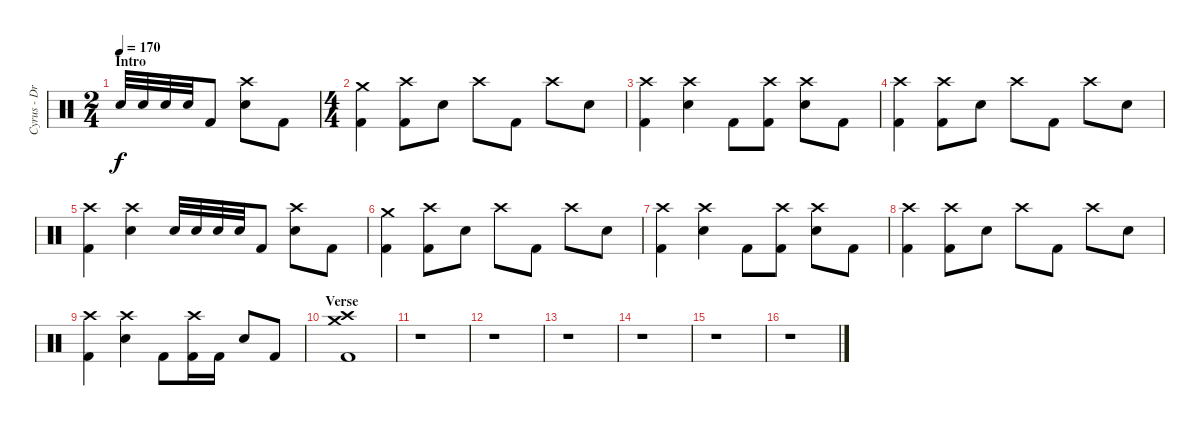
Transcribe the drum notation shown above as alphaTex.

\track ("Cyrus - Drums" "Cyrus - Dr") {instrument percussion}
\staff {score}
\articulation defaults
\ts (2 4)
\section ("" "Intro")
\tempo 170
\clef neutral
\ks c "Electric Snare (hit)".32{dy f} "Electric Snare (hit)".32 "Electric Snare (hit)".32 "Electric Snare (hit)".32 "Kick (hit) 2".8
("Crash high (hit)" "Electric Snare (hit)").8 "Kick (hit) 2".8 |
\ts (4 4)
("Crash medium (hit)" "Kick (hit) 2").4 ("Crash high (hit)" "Kick (hit) 2").8 "Electric Snare (hit)".8 "Crash high (hit)".8 "Kick (hit) 2".8 "Crash high (hit)".8 "Electric Snare (hit)".8 |
("Crash high (hit)" "Kick (hit) 2").4 ("Crash high (hit)" "Electric Snare (hit)").4 "Kick (hit) 2".8 ("Crash high (hit)" "Kick (hit) 2").8 ("Crash high (hit)" "Electric Snare (hit)").8 "Kick (hit) 2".8 |
("Crash high (hit)" "Kick (hit) 2").4 ("Crash high (hit)" "Kick (hit) 2").8 "Electric Snare (hit)".8 "Crash high (hit)".8 "Kick (hit) 2".8 "Crash high (hit)".8 "Electric Snare (hit)".8 |
("Crash high (hit)" "Kick (hit) 2").4 ("Crash high (hit)" "Electric Snare (hit)").4 "Electric Snare (hit)".32 "Electric Snare (hit)".32 "Electric Snare (hit)".32 "Electric Snare (hit)".32 "Kick (hit) 2".8 ("Crash high (hit)" "Electric Snare (hit)").8 "Kick (hit) 2".8 |
("Crash medium (hit)" "Kick (hit) 2").4 ("Crash high (hit)" "Kick (hit) 2").8 "Electric Snare (hit)".8 "Crash high (hit)".8 "Kick (hit) 2".8 "Crash high (hit)".8 "Electric Snare (hit)".8 |
("Crash high (hit)" "Kick (hit) 2").4 ("Crash high (hit)" "Electric Snare (hit)").4 "Kick (hit) 2".8 ("Crash high (hit)" "Kick (hit) 2").8 ("Crash high (hit)" "Electric Snare (hit)").8 "Kick (hit) 2".8 |
("Crash high (hit)" "Kick (hit) 2").4 ("Crash high (hit)" "Kick (hit) 2").8 "Electric Snare (hit)".8 "Crash high (hit)".8 "Kick (hit) 2".8 "Crash high (hit)".8 "Electric Snare (hit)".8 |
("Crash high (hit)" "Kick (hit) 2").4 ("Crash high (hit)" "Electric Snare (hit)").4 "Kick (hit) 2".8 ("Crash high (hit)" "Kick (hit) 2").16 "Kick (hit) 2".16 "Electric Snare (hit)".8 "Kick (hit) 2".8 |
\section ("" "Verse")
("Crash high (hit)" "Crash medium (hit)" "Kick (hit) 2").1 |
r.1 |
r.1 |
r.1 |
r.1 |
r.1 |
r.1
